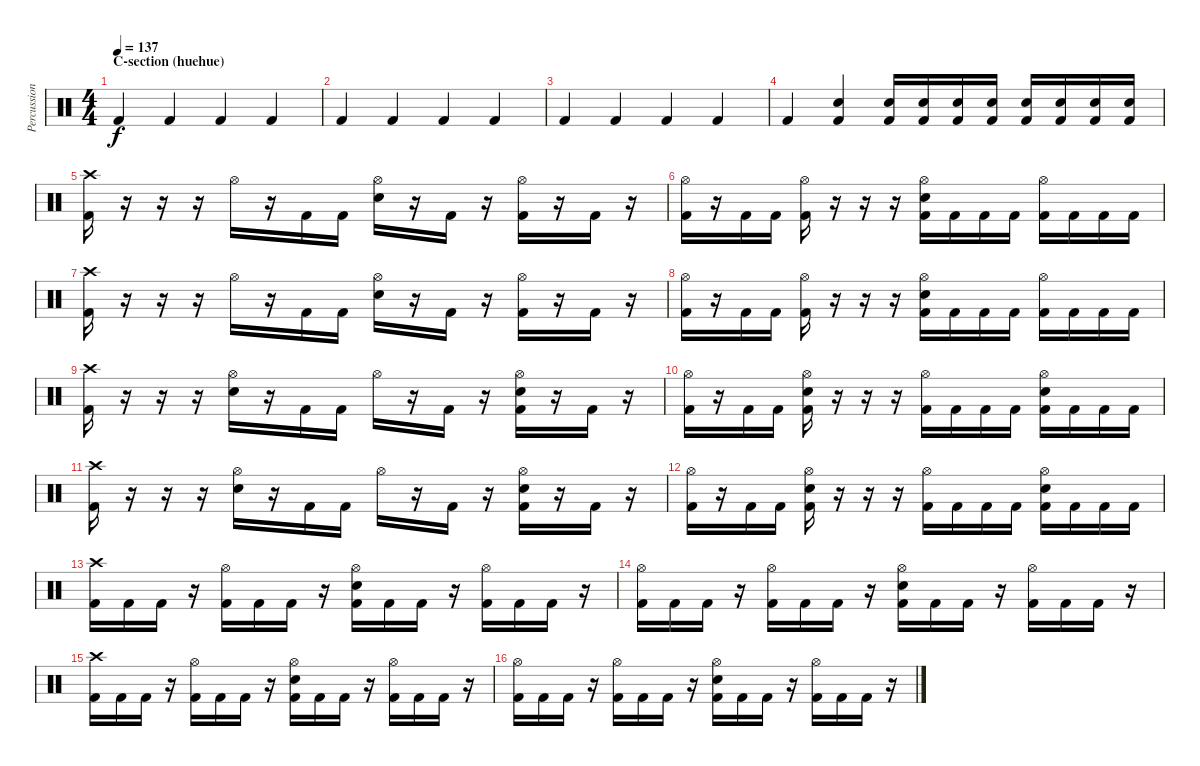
\track ("Percussion" "Percussion") {instrument percussion}
\staff {score}
\articulation defaults
\ts (4 4)
\section ("" "C-section (huehue)")
\tempo 137
\clef neutral
\ks c "Kick (hit) 2".4{dy f} "Kick (hit) 2".4 "Kick (hit) 2".4 "Kick (hit) 2".4
|
"Kick (hit) 2".4 "Kick (hit) 2".4 "Kick (hit) 2".4 "Kick (hit) 2".4 |
"Kick (hit) 2".4 "Kick (hit) 2".4 "Kick (hit) 2".4 "Kick (hit) 2".4 |
"Kick (hit) 2".4 ("Snare (hit) 2" "Kick (hit) 2").4 ("Snare (hit) 2" "Kick (hit) 2").16 ("Snare (hit) 2" "Kick (hit) 2").16 ("Snare (hit) 2" "Kick (hit) 2").16 ("Snare (hit) 2" "Kick (hit) 2").16 ("Snare (hit) 2" "Kick (hit) 2").16 ("Snare (hit) 2" "Kick (hit) 2").16 ("Snare (hit) 2" "Kick (hit) 2").16 ("Snare (hit) 2" "Kick (hit) 2").16 |
("Crash high (hit)" "Kick (hit) 2").16 r.16 r.16 r.16 "Hi-Hat (open)".16 r.16 "Kick (hit) 2".16 "Kick (hit) 2".16 ("Hi-Hat (open)" "Snare (hit) 2").16 r.16 "Kick (hit) 2".16 r.16 ("Hi-Hat (open)" "Kick (hit) 2").16 r.16 "Kick (hit) 2".16 r.16 |
("Hi-Hat (open)" "Kick (hit) 2").16 r.16 "Kick (hit) 2".16 "Kick (hit) 2".16 ("Hi-Hat (open)" "Kick (hit) 2").16 r.16 r.16 r.16 ("Hi-Hat (open)" "Snare (hit) 2" "Kick (hit) 2").16 "Kick (hit) 2".16 "Kick (hit) 2".16 "Kick (hit) 2".16 ("Hi-Hat (open)" "Kick (hit) 2").16 "Kick (hit) 2".16 "Kick (hit) 2".16 "Kick (hit) 2".16 |
("Crash high (hit)" "Kick (hit) 2").16 r.16 r.16 r.16 "Hi-Hat (open)".16 r.16 "Kick (hit) 2".16 "Kick (hit) 2".16 ("Hi-Hat (open)" "Snare (hit) 2").16 r.16 "Kick (hit) 2".16 r.16 ("Hi-Hat (open)" "Kick (hit) 2").16 r.16 "Kick (hit) 2".16 r.16 |
("Hi-Hat (open)" "Kick (hit) 2").16 r.16 "Kick (hit) 2".16 "Kick (hit) 2".16 ("Hi-Hat (open)" "Kick (hit) 2").16 r.16 r.16 r.16 ("Hi-Hat (open)" "Snare (hit) 2" "Kick (hit) 2").16 "Kick (hit) 2".16 "Kick (hit) 2".16 "Kick (hit) 2".16 ("Hi-Hat (open)" "Kick (hit) 2").16 "Kick (hit) 2".16 "Kick (hit) 2".16 "Kick (hit) 2".16 |
("Crash high (hit)" "Kick (hit) 2").16 r.16 r.16 r.16 ("Hi-Hat (open)" "Snare (hit) 2").16 r.16 "Kick (hit) 2".16 "Kick (hit) 2".16 "Hi-Hat (open)".16 r.16 "Kick (hit) 2".16 r.16 ("Hi-Hat (open)" "Snare (hit) 2" "Kick (hit) 2").16 r.16 "Kick (hit) 2".16 r.16 |
("Hi-Hat (open)" "Kick (hit) 2").16 r.16 "Kick (hit) 2".16 "Kick (hit) 2".16 ("Hi-Hat (open)" "Snare (hit) 2" "Kick (hit) 2").16 r.16 r.16 r.16 ("Hi-Hat (open)" "Kick (hit) 2").16 "Kick (hit) 2".16 "Kick (hit) 2".16 "Kick (hit) 2".16 ("Hi-Hat (open)" "Snare (hit) 2" "Kick (hit) 2").16 "Kick (hit) 2".16 "Kick (hit) 2".16 "Kick (hit) 2".16 |
("Crash high (hit)" "Kick (hit) 2").16 r.16 r.16 r.16 ("Hi-Hat (open)" "Snare (hit) 2").16 r.16 "Kick (hit) 2".16 "Kick (hit) 2".16 "Hi-Hat (open)".16 r.16 "Kick (hit) 2".16 r.16 ("Hi-Hat (open)" "Snare (hit) 2" "Kick (hit) 2").16 r.16 "Kick (hit) 2".16 r.16 |
("Hi-Hat (open)" "Kick (hit) 2").16 r.16 "Kick (hit) 2".16 "Kick (hit) 2".16 ("Hi-Hat (open)" "Snare (hit) 2" "Kick (hit) 2").16 r.16 r.16 r.16 ("Hi-Hat (open)" "Kick (hit) 2").16 "Kick (hit) 2".16 "Kick (hit) 2".16 "Kick (hit) 2".16 ("Hi-Hat (open)" "Snare (hit) 2" "Kick (hit) 2").16 "Kick (hit) 2".16 "Kick (hit) 2".16 "Kick (hit) 2".16 |
("Crash high (hit)" "Kick (hit) 2").16 "Kick (hit) 2".16 "Kick (hit) 2".16 r.16 ("Hi-Hat (open)" "Kick (hit) 2").16 "Kick (hit) 2".16 "Kick (hit) 2".16 r.16 ("Hi-Hat (open)" "Snare (hit) 2" "Kick (hit) 2").16 "Kick (hit) 2".16 "Kick (hit) 2".16 r.16 ("Hi-Hat (open)" "Kick (hit) 2").16 "Kick (hit) 2".16 "Kick (hit) 2".16 r.16 |
("Hi-Hat (open)" "Kick (hit) 2").16 "Kick (hit) 2".16 "Kick (hit) 2".16 r.16 ("Hi-Hat (open)" "Kick (hit) 2").16 "Kick (hit) 2".16 "Kick (hit) 2".16 r.16 ("Hi-Hat (open)" "Snare (hit) 2" "Kick (hit) 2").16 "Kick (hit) 2".16 "Kick (hit) 2".16 r.16 ("Hi-Hat (open)" "Kick (hit) 2").16 "Kick (hit) 2".16 "Kick (hit) 2".16 r.16 |
("Crash high (hit)" "Kick (hit) 2").16 "Kick (hit) 2".16 "Kick (hit) 2".16 r.16 ("Hi-Hat (open)" "Kick (hit) 2").16 "Kick (hit) 2".16 "Kick (hit) 2".16 r.16 ("Hi-Hat (open)" "Snare (hit) 2" "Kick (hit) 2").16 "Kick (hit) 2".16 "Kick (hit) 2".16 r.16 ("Hi-Hat (open)" "Kick (hit) 2").16 "Kick (hit) 2".16 "Kick (hit) 2".16 r.16 |
("Hi-Hat (open)" "Kick (hit) 2").16 "Kick (hit) 2".16 "Kick (hit) 2".16 r.16 ("Hi-Hat (open)" "Kick (hit) 2").16 "Kick (hit) 2".16 "Kick (hit) 2".16 r.16 ("Hi-Hat (open)" "Snare (hit) 2" "Kick (hit) 2").16 "Kick (hit) 2".16 "Kick (hit) 2".16 r.16 ("Hi-Hat (open)" "Kick (hit) 2").16 "Kick (hit) 2".16 "Kick (hit) 2".16 r.16
